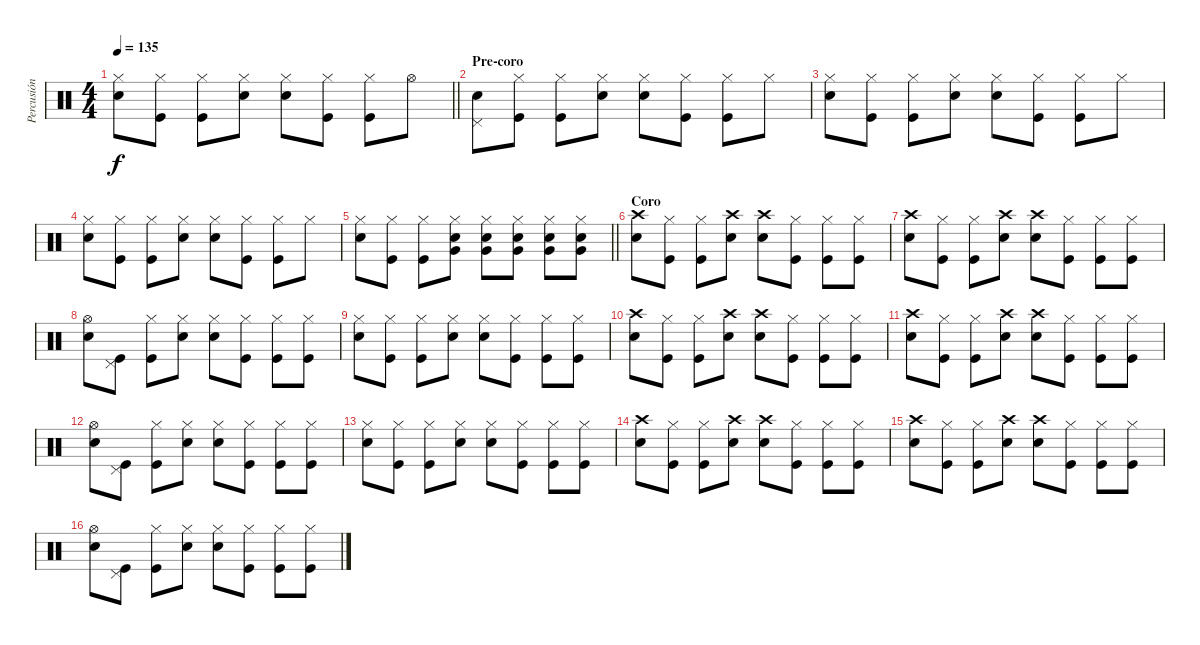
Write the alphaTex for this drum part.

\track ("Percusión" "Percusión") {instrument percussion}
\staff {score}
\articulation defaults
\ts (4 4)
\tempo 135
\clef neutral
\barLineRight lightlight
\ks c
("Hi-Hat (closed)" "Snare (hit) 2").8{dy f} ("Hi-Hat (closed)" "Kick (hit)").8 ("Hi-Hat (closed)" "Kick (hit)").8 ("Hi-Hat (closed)" "Snare (hit) 2").8 ("Hi-Hat (closed)" "Snare (hit) 2").8 ("Hi-Hat (closed)" "Kick (hit)").8 ("Hi-Hat (closed)" "Kick (hit)").8 "Hi-Hat (open)".8 |
\section ("" "Pre-coro")
("Pedal Hi-Hat (hit)" "Snare (hit) 2").8 ("Hi-Hat (closed)" "Kick (hit)").8 ("Hi-Hat (closed)" "Kick (hit)").8 ("Hi-Hat (closed)" "Snare (hit) 2").8 ("Hi-Hat (closed)" "Snare (hit) 2").8 ("Hi-Hat (closed)" "Kick (hit)").8 ("Hi-Hat (closed)" "Kick (hit)").8 "Hi-Hat (closed)".8 |
("Hi-Hat (closed)" "Snare (hit) 2").8 ("Hi-Hat (closed)" "Kick (hit)").8 ("Hi-Hat (closed)" "Kick (hit)").8 ("Hi-Hat (closed)" "Snare (hit) 2").8 ("Hi-Hat (closed)" "Snare (hit) 2").8 ("Hi-Hat (closed)" "Kick (hit)").8 ("Hi-Hat (closed)" "Kick (hit)").8 "Hi-Hat (closed)".8 |
("Hi-Hat (closed)" "Snare (hit) 2").8 ("Hi-Hat (closed)" "Kick (hit)").8 ("Hi-Hat (closed)" "Kick (hit)").8 ("Hi-Hat (closed)" "Snare (hit) 2").8 ("Hi-Hat (closed)" "Snare (hit) 2").8 ("Hi-Hat (closed)" "Kick (hit)").8 ("Hi-Hat (closed)" "Kick (hit)").8 "Hi-Hat (closed)".8 |
\barLineRight lightlight
("Hi-Hat (closed)" "Snare (hit) 2").8 ("Hi-Hat (closed)" "Kick (hit)").8 ("Hi-Hat (closed)" "Kick (hit)").8 ("Hi-Hat (closed)" "Snare (hit) 2" "Very Low Tom (hit)").8 ("Hi-Hat (closed)" "Snare (hit) 2" "Very Low Tom (hit)").8 ("Hi-Hat (closed)" "Snare (hit) 2" "Very Low Tom (hit)").8 ("Hi-Hat (closed)" "Snare (hit) 2" "Very Low Tom (hit)").8 ("Hi-Hat (closed)" "Snare (hit) 2" "Very Low Tom (hit)").8 |
\section ("" "Coro")
("Crash high (hit)" "Snare (hit) 2").8 ("Hi-Hat (closed)" "Kick (hit)").8 ("Hi-Hat (closed)" "Kick (hit)").8 ("Crash high (hit)" "Snare (hit) 2").8 ("Crash high (hit)" "Snare (hit) 2").8 ("Hi-Hat (closed)" "Kick (hit)").8 ("Hi-Hat (closed)" "Kick (hit)").8 ("Hi-Hat (closed)" "Kick (hit)").8 |
("Crash high (hit)" "Snare (hit) 2").8 ("Hi-Hat (closed)" "Kick (hit)").8 ("Hi-Hat (closed)" "Kick (hit)").8 ("Crash high (hit)" "Snare (hit) 2").8 ("Crash high (hit)" "Snare (hit) 2").8 ("Hi-Hat (closed)" "Kick (hit)").8 ("Hi-Hat (closed)" "Kick (hit)").8 ("Hi-Hat (closed)" "Kick (hit)").8 |
("Hi-Hat (open)" "Snare (hit) 2").8 ("Pedal Hi-Hat (hit)" "Kick (hit)").8 ("Hi-Hat (closed)" "Kick (hit)").8 ("Hi-Hat (closed)" "Snare (hit) 2").8 ("Hi-Hat (closed)" "Snare (hit) 2").8 ("Hi-Hat (closed)" "Kick (hit)").8 ("Hi-Hat (closed)" "Kick (hit)").8 ("Hi-Hat (closed)" "Kick (hit)").8 |
("Hi-Hat (closed)" "Snare (hit) 2").8 ("Hi-Hat (closed)" "Kick (hit)").8 ("Hi-Hat (closed)" "Kick (hit)").8 ("Hi-Hat (closed)" "Snare (hit) 2").8 ("Hi-Hat (closed)" "Snare (hit) 2").8 ("Hi-Hat (closed)" "Kick (hit)").8 ("Hi-Hat (closed)" "Kick (hit)").8 ("Hi-Hat (closed)" "Kick (hit)").8 |
("Crash high (hit)" "Snare (hit) 2").8 ("Hi-Hat (closed)" "Kick (hit)").8 ("Hi-Hat (closed)" "Kick (hit)").8 ("Crash high (hit)" "Snare (hit) 2").8 ("Crash high (hit)" "Snare (hit) 2").8 ("Hi-Hat (closed)" "Kick (hit)").8 ("Hi-Hat (closed)" "Kick (hit)").8 ("Hi-Hat (closed)" "Kick (hit)").8 |
("Crash high (hit)" "Snare (hit) 2").8 ("Hi-Hat (closed)" "Kick (hit)").8 ("Hi-Hat (closed)" "Kick (hit)").8 ("Crash high (hit)" "Snare (hit) 2").8 ("Crash high (hit)" "Snare (hit) 2").8 ("Hi-Hat (closed)" "Kick (hit)").8 ("Hi-Hat (closed)" "Kick (hit)").8 ("Hi-Hat (closed)" "Kick (hit)").8 |
("Hi-Hat (open)" "Snare (hit) 2").8 ("Pedal Hi-Hat (hit)" "Kick (hit)").8 ("Hi-Hat (closed)" "Kick (hit)").8 ("Hi-Hat (closed)" "Snare (hit) 2").8 ("Hi-Hat (closed)" "Snare (hit) 2").8 ("Hi-Hat (closed)" "Kick (hit)").8 ("Hi-Hat (closed)" "Kick (hit)").8 ("Hi-Hat (closed)" "Kick (hit)").8 |
("Hi-Hat (closed)" "Snare (hit) 2").8 ("Hi-Hat (closed)" "Kick (hit)").8 ("Hi-Hat (closed)" "Kick (hit)").8 ("Hi-Hat (closed)" "Snare (hit) 2").8 ("Hi-Hat (closed)" "Snare (hit) 2").8 ("Hi-Hat (closed)" "Kick (hit)").8 ("Hi-Hat (closed)" "Kick (hit)").8 ("Hi-Hat (closed)" "Kick (hit)").8 |
("Crash high (hit)" "Snare (hit) 2").8 ("Hi-Hat (closed)" "Kick (hit)").8 ("Hi-Hat (closed)" "Kick (hit)").8 ("Crash high (hit)" "Snare (hit) 2").8 ("Crash high (hit)" "Snare (hit) 2").8 ("Hi-Hat (closed)" "Kick (hit)").8 ("Hi-Hat (closed)" "Kick (hit)").8 ("Hi-Hat (closed)" "Kick (hit)").8 |
("Crash high (hit)" "Snare (hit) 2").8 ("Hi-Hat (closed)" "Kick (hit)").8 ("Hi-Hat (closed)" "Kick (hit)").8 ("Crash high (hit)" "Snare (hit) 2").8 ("Crash high (hit)" "Snare (hit) 2").8 ("Hi-Hat (closed)" "Kick (hit)").8 ("Hi-Hat (closed)" "Kick (hit)").8 ("Hi-Hat (closed)" "Kick (hit)").8 |
("Hi-Hat (open)" "Snare (hit) 2").8 ("Pedal Hi-Hat (hit)" "Kick (hit)").8 ("Hi-Hat (closed)" "Kick (hit)").8 ("Hi-Hat (closed)" "Snare (hit) 2").8 ("Hi-Hat (closed)" "Snare (hit) 2").8 ("Hi-Hat (closed)" "Kick (hit)").8 ("Hi-Hat (closed)" "Kick (hit)").8 ("Hi-Hat (closed)" "Kick (hit)").8
